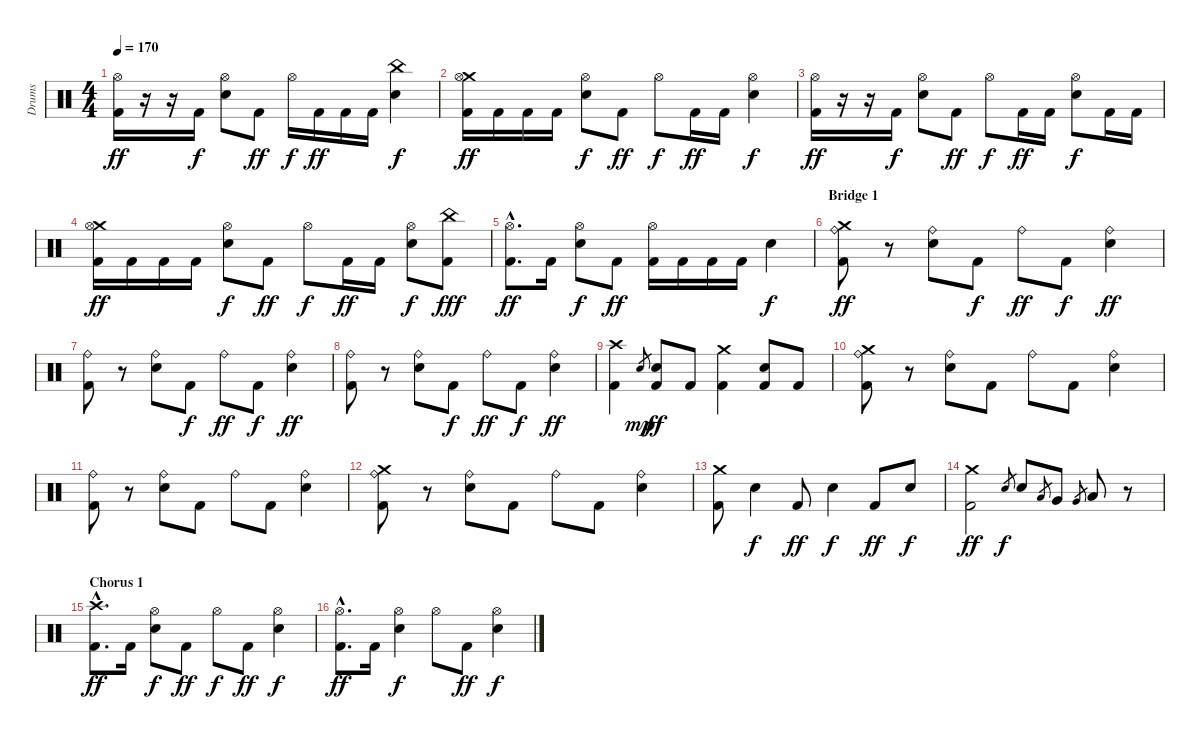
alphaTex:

\track ("Drums" "Drums") {instrument percussion}
\staff {score}
\articulation defaults
\ts (4 4)
\tempo 170
\clef neutral
\ks c
("Hi-Hat (open)" "Kick (hit) 2").16{dy ff} r.16 r.16 "Kick (hit) 2".16{dy f} ("Hi-Hat (open)" "Snare (hit) 2").8 "Kick (hit) 2".8{dy ff} "Hi-Hat (open)".16{dy f} "Kick (hit) 2".16{dy ff} "Kick (hit) 2".16 "Kick (hit) 2".16 ("China (hit)" "Snare (hit) 2").4{dy f} |
("Crash medium (hit)" "Hi-Hat (open)" "Kick (hit) 2").16{dy ff} "Kick (hit) 2".16 "Kick (hit) 2".16 "Kick (hit) 2".16 ("Hi-Hat (open)" "Snare (hit) 2").8{dy f} "Kick (hit) 2".8{dy ff} "Hi-Hat (open)".8{dy f} "Kick (hit) 2".16{dy ff} "Kick (hit) 2".16 ("Hi-Hat (open)" "Snare (hit) 2").4{dy f} |
("Hi-Hat (open)" "Kick (hit) 2").16{dy ff} r.16 r.16 "Kick (hit) 2".16{dy f} ("Hi-Hat (open)" "Snare (hit) 2").8 "Kick (hit) 2".8{dy ff} "Hi-Hat (open)".8{dy f} "Kick (hit) 2".16{dy ff} "Kick (hit) 2".16 ("Hi-Hat (open)" "Snare (hit) 2").8{dy f} "Kick (hit) 2".16 "Kick (hit) 2".16 |
("Crash medium (hit)" "Hi-Hat (open)" "Kick (hit) 2").16{dy ff} "Kick (hit) 2".16 "Kick (hit) 2".16 "Kick (hit) 2".16 ("Hi-Hat (open)" "Snare (hit) 2").8{dy f} "Kick (hit) 2".8{dy ff} "Hi-Hat (open)".8{dy f} "Kick (hit) 2".16{dy ff} "Kick (hit) 2".16 ("Hi-Hat (open)" "Snare (hit) 2").8{dy f} ("China (hit)" "Kick (hit) 2").8{dy fff} |
("Hi-Hat (open)"{hac} "Kick (hit) 2"{hac}).8{d dy ff} "Kick (hit) 2".16 ("Hi-Hat (open)" "Snare (hit) 2").8{dy f} "Kick (hit) 2".8{dy ff} ("Hi-Hat (open)" "Kick (hit) 2").16 "Kick (hit) 2".16 "Kick (hit) 2".16 "Kick (hit) 2".16 "Snare (hit) 2".4{dy f} |
\section ("" "Bridge 1")
("Crash medium (hit)" "Ride (bell)" "Kick (hit) 2").8{dy ff} r.8 ("Ride (bell)" "Snare (hit) 2").8 "Kick (hit) 2".8{dy f} "Ride (bell)".8{dy ff} "Kick (hit) 2".8{dy f} ("Ride (bell)" "Snare (hit) 2").4{dy ff} |
("Ride (bell)" "Kick (hit) 2").8 r.8 ("Ride (bell)" "Snare (hit) 2").8 "Kick (hit) 2".8{dy f} "Ride (bell)".8{dy ff} "Kick (hit) 2".8{dy f} ("Ride (bell)" "Snare (hit) 2").4{dy ff} |
("Ride (bell)" "Kick (hit) 2").8 r.8 ("Ride (bell)" "Snare (hit) 2").8 "Kick (hit) 2".8{dy f} "Ride (bell)".8{dy ff} "Kick (hit) 2".8{dy f} ("Ride (bell)" "Snare (hit) 2").4{dy ff} |
("Crash high (hit)" "Kick (hit) 2").4 "Snare (hit) 2".8{gr dy mp} ("Snare (hit) 2" "Kick (hit) 2").8{dy ff} "Kick (hit) 2".8 ("Crash medium (hit)" "Kick (hit) 2").4 ("Snare (hit) 2" "Kick (hit) 2").8 "Kick (hit) 2".8 |
("Crash medium (hit)" "Ride (bell)" "Kick (hit) 2").8 r.8 ("Ride (bell)" "Snare (hit) 2").8 "Kick (hit) 2".8 "Ride (bell)".8 "Kick (hit) 2".8 ("Ride (bell)" "Snare (hit) 2").4 |
("Ride (bell)" "Kick (hit) 2").8 r.8 ("Ride (bell)" "Snare (hit) 2").8 "Kick (hit) 2".8 "Ride (bell)".8 "Kick (hit) 2".8 ("Ride (bell)" "Snare (hit) 2").4 |
("Crash medium (hit)" "Ride (bell)" "Kick (hit) 2").8 r.8 ("Ride (bell)" "Snare (hit) 2").8 "Kick (hit) 2".8 "Ride (bell)".8 "Kick (hit) 2".8 ("Ride (bell)" "Snare (hit) 2").4 |
("Crash medium (hit)" "Kick (hit) 2").8 "Snare (hit) 2".4{dy f} "Kick (hit) 2".8{dy ff} "Snare (hit) 2".4{dy f} "Kick (hit) 2".8{dy ff} "Snare (hit) 2".8{dy f} |
("Crash medium (hit)" "Kick (hit) 2").2{dy ff} "Snare (hit) 2".8{gr dy f} "Snare (hit) 2".8 "Low Tom (hit)".8{gr} "Very Low Tom (hit)".8 "Very Low Tom (hit)".8{gr} "Low Floor Tom (hit)".8 r.8 |
\section ("" "Chorus 1")
("Crash high (hit)"{hac} "Kick (hit) 2"{hac}).8{d dy ff} "Kick (hit) 2".16 ("Hi-Hat (open)" "Snare (hit) 2").8{dy f} "Kick (hit) 2".8{dy ff} "Hi-Hat (open)".8{dy f} "Kick (hit) 2".8{dy ff} ("Hi-Hat (open)" "Snare (hit) 2").4{dy f} |
("Hi-Hat (open)"{hac} "Kick (hit) 2"{hac}).8{d dy ff} "Kick (hit) 2".16 ("Hi-Hat (open)" "Snare (hit) 2").4{dy f} "Hi-Hat (open)".8 "Kick (hit) 2".8{dy ff} ("Hi-Hat (open)" "Snare (hit) 2").4{dy f}
